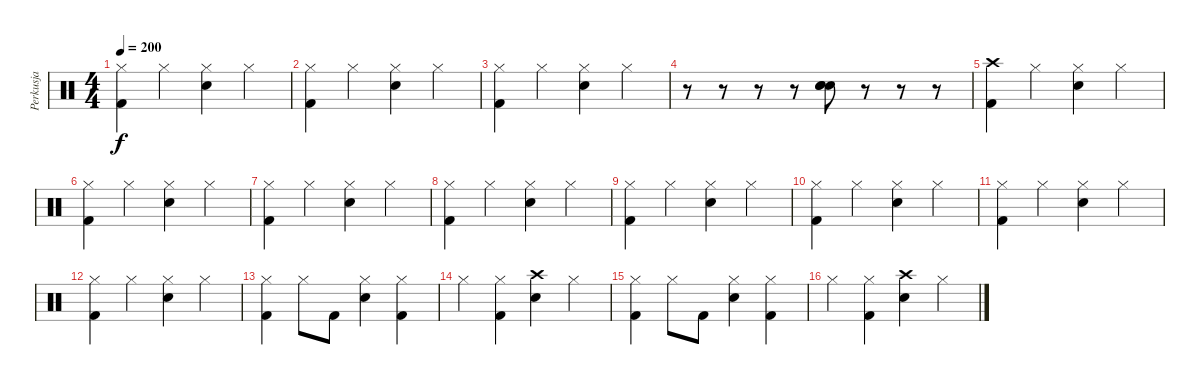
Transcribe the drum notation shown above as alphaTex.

\track ("Perkusja" "Perkusja") {instrument percussion}
\staff {score}
\articulation defaults
\ts (4 4)
\tempo 200
\clef neutral
\ks c
("Hi-Hat (closed)" "Kick (hit) 2").4{dy f} "Hi-Hat (closed)".4 ("Hi-Hat (closed)" "Snare (hit) 2").4 "Hi-Hat (closed)".4 |
("Hi-Hat (closed)" "Kick (hit) 2").4 "Hi-Hat (closed)".4 ("Hi-Hat (closed)" "Snare (hit) 2").4 "Hi-Hat (closed)".4 |
("Hi-Hat (closed)" "Kick (hit) 2").4 "Hi-Hat (closed)".4 ("Hi-Hat (closed)" "Snare (hit) 2").4 "Hi-Hat (closed)".4 |
r.8 r.8 r.8 r.8 ("Electric Snare (hit)" "Snare (hit) 2" "Electric Snare (hit)").8{bd 480} r.8 r.8 r.8 |
("Crash high (hit)" "Kick (hit) 2").4 "Hi-Hat (closed)".4 ("Hi-Hat (closed)" "Snare (hit) 2").4 "Hi-Hat (closed)".4 |
("Hi-Hat (closed)" "Kick (hit) 2").4 "Hi-Hat (closed)".4 ("Hi-Hat (closed)" "Snare (hit) 2").4 "Hi-Hat (closed)".4 |
("Hi-Hat (closed)" "Kick (hit) 2").4 "Hi-Hat (closed)".4 ("Hi-Hat (closed)" "Snare (hit) 2").4 "Hi-Hat (closed)".4 |
("Hi-Hat (closed)" "Kick (hit) 2").4 "Hi-Hat (closed)".4 ("Hi-Hat (closed)" "Snare (hit) 2").4 "Hi-Hat (closed)".4 |
("Hi-Hat (closed)" "Kick (hit) 2").4 "Hi-Hat (closed)".4 ("Hi-Hat (closed)" "Snare (hit) 2").4 "Hi-Hat (closed)".4 |
("Hi-Hat (closed)" "Kick (hit) 2").4 "Hi-Hat (closed)".4 ("Hi-Hat (closed)" "Snare (hit) 2").4 "Hi-Hat (closed)".4 |
("Hi-Hat (closed)" "Kick (hit) 2").4 "Hi-Hat (closed)".4 ("Hi-Hat (closed)" "Snare (hit) 2").4 "Hi-Hat (closed)".4 |
("Hi-Hat (closed)" "Kick (hit) 2").4 "Hi-Hat (closed)".4 ("Hi-Hat (closed)" "Snare (hit) 2").4 "Hi-Hat (closed)".4 |
("Hi-Hat (closed)" "Kick (hit) 2").4 "Hi-Hat (closed)".8 "Kick (hit) 2".8 ("Hi-Hat (closed)" "Snare (hit) 2").4 ("Hi-Hat (closed)" "Kick (hit) 2").4 |
"Hi-Hat (closed)".4 ("Hi-Hat (closed)" "Kick (hit) 2").4 ("Crash high (hit)" "Snare (hit) 2").4 "Hi-Hat (closed)".4 |
("Hi-Hat (closed)" "Kick (hit) 2").4 "Hi-Hat (closed)".8 "Kick (hit) 2".8 ("Hi-Hat (closed)" "Snare (hit) 2").4 ("Hi-Hat (closed)" "Kick (hit) 2").4 |
"Hi-Hat (closed)".4 ("Hi-Hat (closed)" "Kick (hit) 2").4 ("Crash high (hit)" "Snare (hit) 2").4 "Hi-Hat (closed)".4
